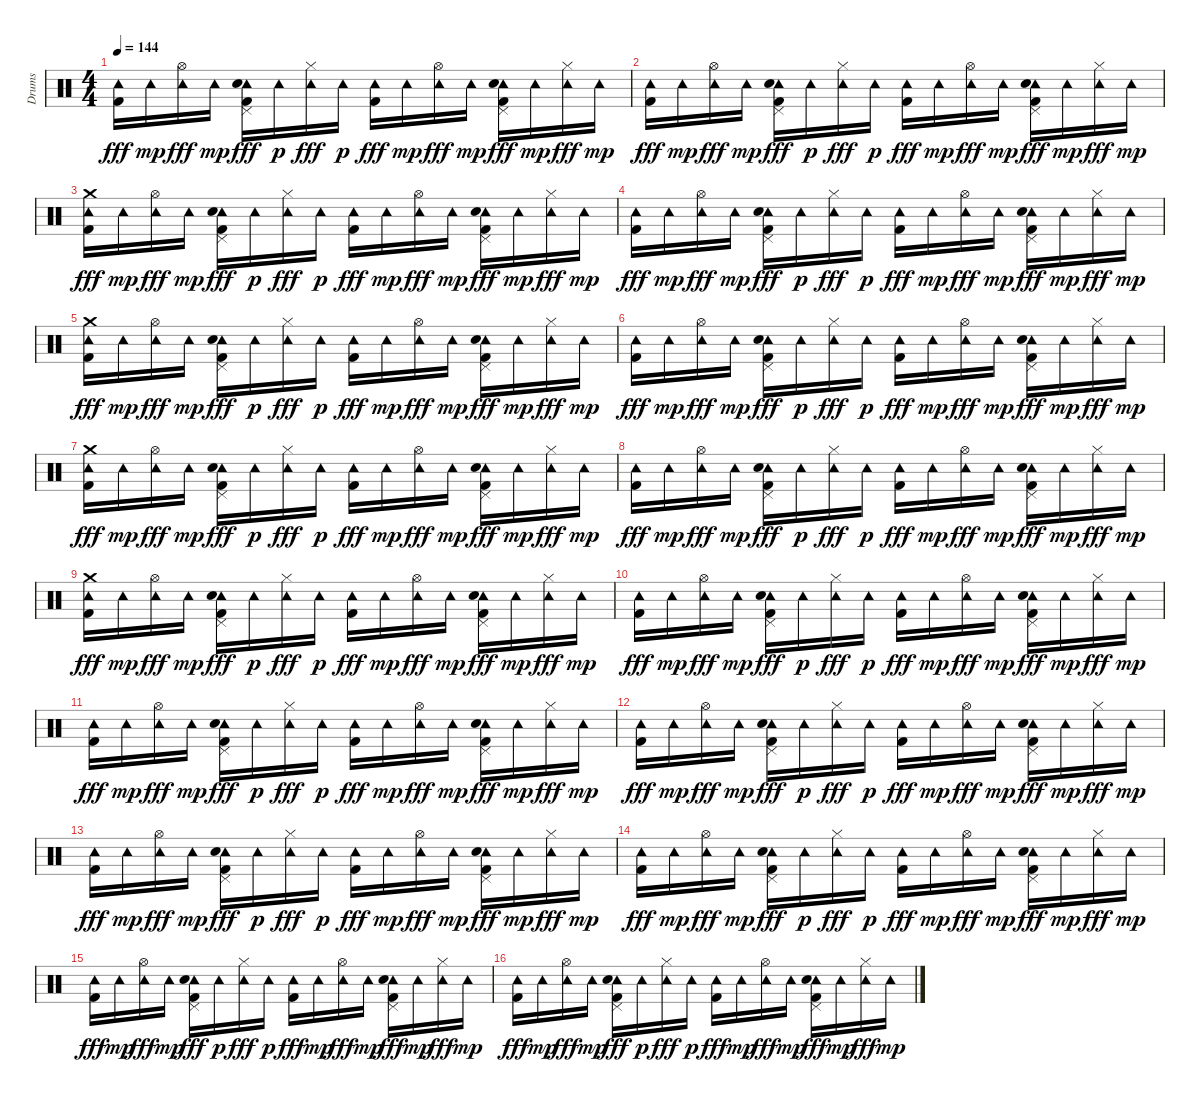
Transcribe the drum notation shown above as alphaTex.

\track ("Drums" "Drums") {instrument percussion}
\staff {score}
\articulation defaults
\ts (4 4)
\tempo 144
\clef neutral
\ks c
("Tambourine (hit)" "Kick (hit) 2").16{dy fff} "Tambourine (hit)".16{dy mp} ("Tambourine (hit)" "Hi-Hat (open)").16{dy fff} "Tambourine (hit)".16{dy mp} ("Tambourine (hit)" "Pedal Hi-Hat (hit)" "Kick (hit) 2" "Hand Clap (hit)").16{dy fff} "Tambourine (hit)".16{dy p} ("Tambourine (hit)" "Hi-Hat (closed)").16{dy fff} "Tambourine (hit)".16{dy p} ("Tambourine (hit)" "Kick (hit) 2").16{dy fff} "Tambourine (hit)".16{dy mp} ("Tambourine (hit)" "Hi-Hat (open)").16{dy fff} "Tambourine (hit)".16{dy mp} ("Tambourine (hit)" "Pedal Hi-Hat (hit)" "Kick (hit) 2" "Hand Clap (hit)").16{dy fff} "Tambourine (hit)".16{dy mp} ("Tambourine (hit)" "Hi-Hat (closed)").16{dy fff} "Tambourine (hit)".16{dy mp} |
("Tambourine (hit)" "Kick (hit) 2").16{dy fff} "Tambourine (hit)".16{dy mp} ("Tambourine (hit)" "Hi-Hat (open)").16{dy fff} "Tambourine (hit)".16{dy mp} ("Tambourine (hit)" "Pedal Hi-Hat (hit)" "Kick (hit) 2" "Hand Clap (hit)").16{dy fff} "Tambourine (hit)".16{dy p} ("Tambourine (hit)" "Hi-Hat (closed)").16{dy fff} "Tambourine (hit)".16{dy p} ("Tambourine (hit)" "Kick (hit) 2").16{dy fff} "Tambourine (hit)".16{dy mp} ("Tambourine (hit)" "Hi-Hat (open)").16{dy fff} "Tambourine (hit)".16{dy mp} ("Tambourine (hit)" "Pedal Hi-Hat (hit)" "Kick (hit) 2" "Hand Clap (hit)").16{dy fff} "Tambourine (hit)".16{dy mp} ("Tambourine (hit)" "Hi-Hat (closed)").16{dy fff} "Tambourine (hit)".16{dy mp} |
("Crash medium (hit)" "Tambourine (hit)" "Kick (hit) 2").16{dy fff} "Tambourine (hit)".16{dy mp} ("Tambourine (hit)" "Hi-Hat (open)").16{dy fff} "Tambourine (hit)".16{dy mp} ("Tambourine (hit)" "Pedal Hi-Hat (hit)" "Kick (hit) 2" "Hand Clap (hit)").16{dy fff} "Tambourine (hit)".16{dy p} ("Tambourine (hit)" "Hi-Hat (closed)").16{dy fff} "Tambourine (hit)".16{dy p} ("Tambourine (hit)" "Kick (hit) 2").16{dy fff} "Tambourine (hit)".16{dy mp} ("Tambourine (hit)" "Hi-Hat (open)").16{dy fff} "Tambourine (hit)".16{dy mp} ("Tambourine (hit)" "Pedal Hi-Hat (hit)" "Kick (hit) 2" "Hand Clap (hit)").16{dy fff} "Tambourine (hit)".16{dy mp} ("Tambourine (hit)" "Hi-Hat (closed)").16{dy fff} "Tambourine (hit)".16{dy mp} |
("Tambourine (hit)" "Kick (hit) 2").16{dy fff} "Tambourine (hit)".16{dy mp} ("Tambourine (hit)" "Hi-Hat (open)").16{dy fff} "Tambourine (hit)".16{dy mp} ("Tambourine (hit)" "Pedal Hi-Hat (hit)" "Kick (hit) 2" "Hand Clap (hit)").16{dy fff} "Tambourine (hit)".16{dy p} ("Tambourine (hit)" "Hi-Hat (closed)").16{dy fff} "Tambourine (hit)".16{dy p} ("Tambourine (hit)" "Kick (hit) 2").16{dy fff} "Tambourine (hit)".16{dy mp} ("Tambourine (hit)" "Hi-Hat (open)").16{dy fff} "Tambourine (hit)".16{dy mp} ("Tambourine (hit)" "Pedal Hi-Hat (hit)" "Kick (hit) 2" "Hand Clap (hit)").16{dy fff} "Tambourine (hit)".16{dy mp} ("Tambourine (hit)" "Hi-Hat (closed)").16{dy fff} "Tambourine (hit)".16{dy mp} |
("Crash medium (hit)" "Tambourine (hit)" "Kick (hit) 2").16{dy fff} "Tambourine (hit)".16{dy mp} ("Tambourine (hit)" "Hi-Hat (open)").16{dy fff} "Tambourine (hit)".16{dy mp} ("Tambourine (hit)" "Pedal Hi-Hat (hit)" "Kick (hit) 2" "Hand Clap (hit)").16{dy fff} "Tambourine (hit)".16{dy p} ("Tambourine (hit)" "Hi-Hat (closed)").16{dy fff} "Tambourine (hit)".16{dy p} ("Tambourine (hit)" "Kick (hit) 2").16{dy fff} "Tambourine (hit)".16{dy mp} ("Tambourine (hit)" "Hi-Hat (open)").16{dy fff} "Tambourine (hit)".16{dy mp} ("Tambourine (hit)" "Pedal Hi-Hat (hit)" "Kick (hit) 2" "Hand Clap (hit)").16{dy fff} "Tambourine (hit)".16{dy mp} ("Tambourine (hit)" "Hi-Hat (closed)").16{dy fff} "Tambourine (hit)".16{dy mp} |
("Tambourine (hit)" "Kick (hit) 2").16{dy fff} "Tambourine (hit)".16{dy mp} ("Tambourine (hit)" "Hi-Hat (open)").16{dy fff} "Tambourine (hit)".16{dy mp} ("Tambourine (hit)" "Pedal Hi-Hat (hit)" "Kick (hit) 2" "Hand Clap (hit)").16{dy fff} "Tambourine (hit)".16{dy p} ("Tambourine (hit)" "Hi-Hat (closed)").16{dy fff} "Tambourine (hit)".16{dy p} ("Tambourine (hit)" "Kick (hit) 2").16{dy fff} "Tambourine (hit)".16{dy mp} ("Tambourine (hit)" "Hi-Hat (open)").16{dy fff} "Tambourine (hit)".16{dy mp} ("Tambourine (hit)" "Pedal Hi-Hat (hit)" "Kick (hit) 2" "Hand Clap (hit)").16{dy fff} "Tambourine (hit)".16{dy mp} ("Tambourine (hit)" "Hi-Hat (closed)").16{dy fff} "Tambourine (hit)".16{dy mp} |
("Crash medium (hit)" "Tambourine (hit)" "Kick (hit) 2").16{dy fff} "Tambourine (hit)".16{dy mp} ("Tambourine (hit)" "Hi-Hat (open)").16{dy fff} "Tambourine (hit)".16{dy mp} ("Tambourine (hit)" "Pedal Hi-Hat (hit)" "Kick (hit) 2" "Hand Clap (hit)").16{dy fff} "Tambourine (hit)".16{dy p} ("Tambourine (hit)" "Hi-Hat (closed)").16{dy fff} "Tambourine (hit)".16{dy p} ("Tambourine (hit)" "Kick (hit) 2").16{dy fff} "Tambourine (hit)".16{dy mp} ("Tambourine (hit)" "Hi-Hat (open)").16{dy fff} "Tambourine (hit)".16{dy mp} ("Tambourine (hit)" "Pedal Hi-Hat (hit)" "Kick (hit) 2" "Hand Clap (hit)").16{dy fff} "Tambourine (hit)".16{dy mp} ("Tambourine (hit)" "Hi-Hat (closed)").16{dy fff} "Tambourine (hit)".16{dy mp} |
("Tambourine (hit)" "Kick (hit) 2").16{dy fff} "Tambourine (hit)".16{dy mp} ("Tambourine (hit)" "Hi-Hat (open)").16{dy fff} "Tambourine (hit)".16{dy mp} ("Tambourine (hit)" "Pedal Hi-Hat (hit)" "Kick (hit) 2" "Hand Clap (hit)").16{dy fff} "Tambourine (hit)".16{dy p} ("Tambourine (hit)" "Hi-Hat (closed)").16{dy fff} "Tambourine (hit)".16{dy p} ("Tambourine (hit)" "Kick (hit) 2").16{dy fff} "Tambourine (hit)".16{dy mp} ("Tambourine (hit)" "Hi-Hat (open)").16{dy fff} "Tambourine (hit)".16{dy mp} ("Tambourine (hit)" "Pedal Hi-Hat (hit)" "Kick (hit) 2" "Hand Clap (hit)").16{dy fff} "Tambourine (hit)".16{dy mp} ("Tambourine (hit)" "Hi-Hat (closed)").16{dy fff} "Tambourine (hit)".16{dy mp} |
("Crash medium (hit)" "Tambourine (hit)" "Kick (hit) 2").16{dy fff} "Tambourine (hit)".16{dy mp} ("Tambourine (hit)" "Hi-Hat (open)").16{dy fff} "Tambourine (hit)".16{dy mp} ("Tambourine (hit)" "Pedal Hi-Hat (hit)" "Kick (hit) 2" "Hand Clap (hit)").16{dy fff} "Tambourine (hit)".16{dy p} ("Tambourine (hit)" "Hi-Hat (closed)").16{dy fff} "Tambourine (hit)".16{dy p} ("Tambourine (hit)" "Kick (hit) 2").16{dy fff} "Tambourine (hit)".16{dy mp} ("Tambourine (hit)" "Hi-Hat (open)").16{dy fff} "Tambourine (hit)".16{dy mp} ("Tambourine (hit)" "Pedal Hi-Hat (hit)" "Kick (hit) 2" "Hand Clap (hit)").16{dy fff} "Tambourine (hit)".16{dy mp} ("Tambourine (hit)" "Hi-Hat (closed)").16{dy fff} "Tambourine (hit)".16{dy mp} |
("Tambourine (hit)" "Kick (hit) 2").16{dy fff} "Tambourine (hit)".16{dy mp} ("Tambourine (hit)" "Hi-Hat (open)").16{dy fff} "Tambourine (hit)".16{dy mp} ("Tambourine (hit)" "Pedal Hi-Hat (hit)" "Kick (hit) 2" "Hand Clap (hit)").16{dy fff} "Tambourine (hit)".16{dy p} ("Tambourine (hit)" "Hi-Hat (closed)").16{dy fff} "Tambourine (hit)".16{dy p} ("Tambourine (hit)" "Kick (hit) 2").16{dy fff} "Tambourine (hit)".16{dy mp} ("Tambourine (hit)" "Hi-Hat (open)").16{dy fff} "Tambourine (hit)".16{dy mp} ("Tambourine (hit)" "Pedal Hi-Hat (hit)" "Kick (hit) 2" "Hand Clap (hit)").16{dy fff} "Tambourine (hit)".16{dy mp} ("Tambourine (hit)" "Hi-Hat (closed)").16{dy fff} "Tambourine (hit)".16{dy mp} |
("Tambourine (hit)" "Kick (hit) 2").16{dy fff} "Tambourine (hit)".16{dy mp} ("Tambourine (hit)" "Hi-Hat (open)").16{dy fff} "Tambourine (hit)".16{dy mp} ("Tambourine (hit)" "Pedal Hi-Hat (hit)" "Kick (hit) 2" "Hand Clap (hit)").16{dy fff} "Tambourine (hit)".16{dy p} ("Tambourine (hit)" "Hi-Hat (closed)").16{dy fff} "Tambourine (hit)".16{dy p} ("Tambourine (hit)" "Kick (hit) 2").16{dy fff} "Tambourine (hit)".16{dy mp} ("Tambourine (hit)" "Hi-Hat (open)").16{dy fff} "Tambourine (hit)".16{dy mp} ("Tambourine (hit)" "Pedal Hi-Hat (hit)" "Kick (hit) 2" "Hand Clap (hit)").16{dy fff} "Tambourine (hit)".16{dy mp} ("Tambourine (hit)" "Hi-Hat (closed)").16{dy fff} "Tambourine (hit)".16{dy mp} |
("Tambourine (hit)" "Kick (hit) 2").16{dy fff} "Tambourine (hit)".16{dy mp} ("Tambourine (hit)" "Hi-Hat (open)").16{dy fff} "Tambourine (hit)".16{dy mp} ("Tambourine (hit)" "Pedal Hi-Hat (hit)" "Kick (hit) 2" "Hand Clap (hit)").16{dy fff} "Tambourine (hit)".16{dy p} ("Tambourine (hit)" "Hi-Hat (closed)").16{dy fff} "Tambourine (hit)".16{dy p} ("Tambourine (hit)" "Kick (hit) 2").16{dy fff} "Tambourine (hit)".16{dy mp} ("Tambourine (hit)" "Hi-Hat (open)").16{dy fff} "Tambourine (hit)".16{dy mp} ("Tambourine (hit)" "Pedal Hi-Hat (hit)" "Kick (hit) 2" "Hand Clap (hit)").16{dy fff} "Tambourine (hit)".16{dy mp} ("Tambourine (hit)" "Hi-Hat (closed)").16{dy fff} "Tambourine (hit)".16{dy mp} |
("Tambourine (hit)" "Kick (hit) 2").16{dy fff} "Tambourine (hit)".16{dy mp} ("Tambourine (hit)" "Hi-Hat (open)").16{dy fff} "Tambourine (hit)".16{dy mp} ("Tambourine (hit)" "Pedal Hi-Hat (hit)" "Kick (hit) 2" "Hand Clap (hit)").16{dy fff} "Tambourine (hit)".16{dy p} ("Tambourine (hit)" "Hi-Hat (closed)").16{dy fff} "Tambourine (hit)".16{dy p} ("Tambourine (hit)" "Kick (hit) 2").16{dy fff} "Tambourine (hit)".16{dy mp} ("Tambourine (hit)" "Hi-Hat (open)").16{dy fff} "Tambourine (hit)".16{dy mp} ("Tambourine (hit)" "Pedal Hi-Hat (hit)" "Kick (hit) 2" "Hand Clap (hit)").16{dy fff} "Tambourine (hit)".16{dy mp} ("Tambourine (hit)" "Hi-Hat (closed)").16{dy fff} "Tambourine (hit)".16{dy mp} |
("Tambourine (hit)" "Kick (hit) 2").16{dy fff} "Tambourine (hit)".16{dy mp} ("Tambourine (hit)" "Hi-Hat (open)").16{dy fff} "Tambourine (hit)".16{dy mp} ("Tambourine (hit)" "Pedal Hi-Hat (hit)" "Kick (hit) 2" "Hand Clap (hit)").16{dy fff} "Tambourine (hit)".16{dy p} ("Tambourine (hit)" "Hi-Hat (closed)").16{dy fff} "Tambourine (hit)".16{dy p} ("Tambourine (hit)" "Kick (hit) 2").16{dy fff} "Tambourine (hit)".16{dy mp} ("Tambourine (hit)" "Hi-Hat (open)").16{dy fff} "Tambourine (hit)".16{dy mp} ("Tambourine (hit)" "Pedal Hi-Hat (hit)" "Kick (hit) 2" "Hand Clap (hit)").16{dy fff} "Tambourine (hit)".16{dy mp} ("Tambourine (hit)" "Hi-Hat (closed)").16{dy fff} "Tambourine (hit)".16{dy mp} |
("Tambourine (hit)" "Kick (hit) 2").16{dy fff} "Tambourine (hit)".16{dy mp} ("Tambourine (hit)" "Hi-Hat (open)").16{dy fff} "Tambourine (hit)".16{dy mp} ("Tambourine (hit)" "Pedal Hi-Hat (hit)" "Kick (hit) 2" "Hand Clap (hit)").16{dy fff} "Tambourine (hit)".16{dy p} ("Tambourine (hit)" "Hi-Hat (closed)").16{dy fff} "Tambourine (hit)".16{dy p} ("Tambourine (hit)" "Kick (hit) 2").16{dy fff} "Tambourine (hit)".16{dy mp} ("Tambourine (hit)" "Hi-Hat (open)").16{dy fff} "Tambourine (hit)".16{dy mp} ("Tambourine (hit)" "Pedal Hi-Hat (hit)" "Kick (hit) 2" "Hand Clap (hit)").16{dy fff} "Tambourine (hit)".16{dy mp} ("Tambourine (hit)" "Hi-Hat (closed)").16{dy fff} "Tambourine (hit)".16{dy mp} |
("Tambourine (hit)" "Kick (hit) 2").16{dy fff} "Tambourine (hit)".16{dy mp} ("Tambourine (hit)" "Hi-Hat (open)").16{dy fff} "Tambourine (hit)".16{dy mp} ("Tambourine (hit)" "Pedal Hi-Hat (hit)" "Kick (hit) 2" "Hand Clap (hit)").16{dy fff} "Tambourine (hit)".16{dy p} ("Tambourine (hit)" "Hi-Hat (closed)").16{dy fff} "Tambourine (hit)".16{dy p} ("Tambourine (hit)" "Kick (hit) 2").16{dy fff} "Tambourine (hit)".16{dy mp} ("Tambourine (hit)" "Hi-Hat (open)").16{dy fff} "Tambourine (hit)".16{dy mp} ("Tambourine (hit)" "Pedal Hi-Hat (hit)" "Kick (hit) 2" "Hand Clap (hit)").16{dy fff} "Tambourine (hit)".16{dy mp} ("Tambourine (hit)" "Hi-Hat (closed)").16{dy fff} "Tambourine (hit)".16{dy mp}
